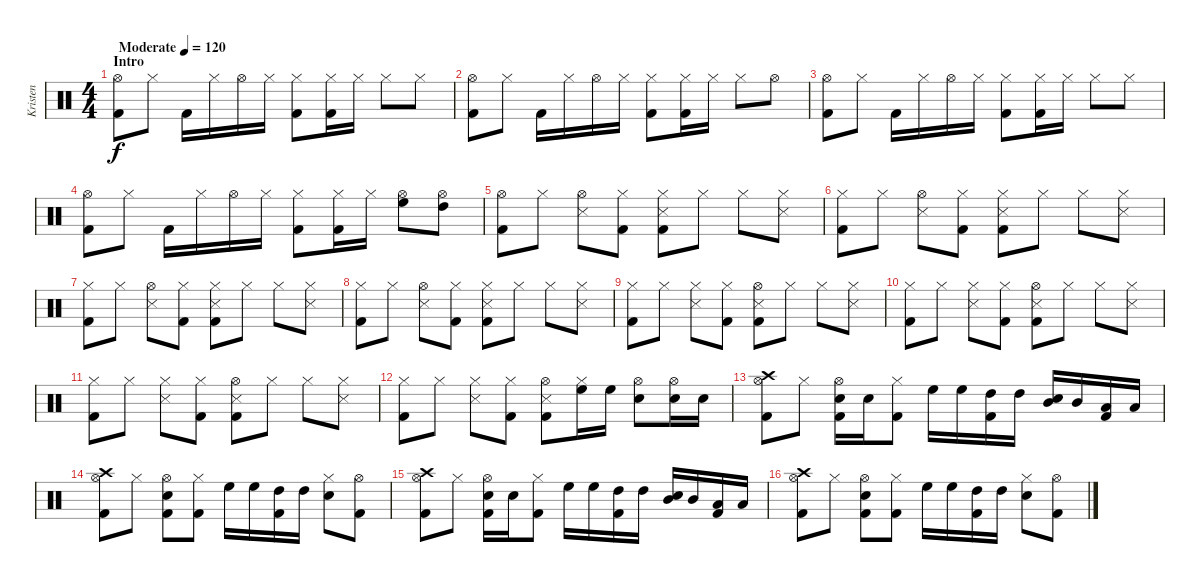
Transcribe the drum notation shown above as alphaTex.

\track ("Kristen" "Kristen") {instrument percussion}
\staff {score}
\articulation defaults
\ts (4 4)
\section ("" "Intro")
\tempo (120 "Moderate")
\clef neutral
\ks c
("Hi-Hat (open)" "Kick (hit) 2").8{dy f} "Hi-Hat (closed)".8 "Kick (hit) 2".16 "Hi-Hat (closed)".16 "Hi-Hat (open)".16 "Hi-Hat (closed)".16 ("Hi-Hat (closed)" "Kick (hit) 2").8 ("Hi-Hat (closed)" "Kick (hit) 2").16 "Hi-Hat (closed)".16 "Hi-Hat (closed)".8 "Hi-Hat (closed)".8 |
("Hi-Hat (open)" "Kick (hit) 2").8 "Hi-Hat (closed)".8 "Kick (hit) 2".16 "Hi-Hat (closed)".16 "Hi-Hat (open)".16 "Hi-Hat (closed)".16 ("Hi-Hat (closed)" "Kick (hit) 2").8 ("Hi-Hat (closed)" "Kick (hit) 2").16 "Hi-Hat (closed)".16 "Hi-Hat (closed)".8 "Hi-Hat (open)".8 |
("Hi-Hat (open)" "Kick (hit) 2").8 "Hi-Hat (closed)".8 "Kick (hit) 2".16 "Hi-Hat (closed)".16 "Hi-Hat (open)".16 "Hi-Hat (closed)".16 ("Hi-Hat (closed)" "Kick (hit) 2").8 ("Hi-Hat (closed)" "Kick (hit) 2").16 "Hi-Hat (closed)".16 "Hi-Hat (closed)".8 "Hi-Hat (closed)".8 |
("Hi-Hat (open)" "Kick (hit) 2").8 "Hi-Hat (closed)".8 "Kick (hit) 2".16 "Hi-Hat (closed)".16 "Hi-Hat (open)".16 "Hi-Hat (closed)".16 ("Hi-Hat (closed)" "Kick (hit) 2").8 ("Hi-Hat (closed)" "Kick (hit) 2").16 "Hi-Hat (closed)".16 ("High Floor Tom (hit)" "Hi-Hat (open)").8 ("High Tom (hit)" "Hi-Hat (open)").8 |
("Hi-Hat (open)" "Kick (hit) 2").8 "Hi-Hat (closed)".8 ("Hi-Hat (open)" "Snare (side stick) 3").8 ("Hi-Hat (closed)" "Kick (hit) 2").8 ("Hi-Hat (closed)" "Snare (side stick) 3" "Kick (hit) 2").8 "Hi-Hat (closed)".8 "Hi-Hat (closed)".8 ("Hi-Hat (closed)" "Snare (side stick) 3").8 |
("Hi-Hat (closed)" "Kick (hit) 2").8 "Hi-Hat (closed)".8 ("Hi-Hat (open)" "Snare (side stick) 3").8 ("Hi-Hat (closed)" "Kick (hit) 2").8 ("Hi-Hat (closed)" "Snare (side stick) 3" "Kick (hit) 2").8 "Hi-Hat (closed)".8 "Hi-Hat (closed)".8 ("Hi-Hat (closed)" "Snare (side stick) 3").8 |
("Hi-Hat (closed)" "Kick (hit) 2").8 "Hi-Hat (closed)".8 ("Hi-Hat (open)" "Snare (side stick) 3").8 ("Hi-Hat (closed)" "Kick (hit) 2").8 ("Hi-Hat (closed)" "Snare (side stick) 3" "Kick (hit) 2").8 "Hi-Hat (closed)".8 "Hi-Hat (closed)".8 ("Hi-Hat (closed)" "Snare (side stick) 3").8 |
("Hi-Hat (closed)" "Kick (hit) 2").8 "Hi-Hat (closed)".8 ("Hi-Hat (open)" "Snare (side stick) 3").8 ("Hi-Hat (closed)" "Kick (hit) 2").8 ("Hi-Hat (closed)" "Snare (side stick) 3" "Kick (hit) 2").8 "Hi-Hat (closed)".8 "Hi-Hat (closed)".8 ("Hi-Hat (closed)" "Snare (side stick) 3").8 |
("Hi-Hat (closed)" "Kick (hit) 2").8 "Hi-Hat (closed)".8 ("Hi-Hat (closed)" "Snare (side stick) 3").8 ("Hi-Hat (closed)" "Kick (hit) 2").8 ("Hi-Hat (open)" "Snare (side stick) 3" "Kick (hit) 2").8 "Hi-Hat (closed)".8 "Hi-Hat (closed)".8 ("Hi-Hat (closed)" "Snare (side stick) 3").8 |
("Hi-Hat (closed)" "Kick (hit) 2").8 "Hi-Hat (closed)".8 ("Hi-Hat (closed)" "Snare (side stick) 3").8 ("Hi-Hat (closed)" "Kick (hit) 2").8 ("Hi-Hat (open)" "Snare (side stick) 3" "Kick (hit) 2").8 "Hi-Hat (closed)".8 "Hi-Hat (closed)".8 ("Hi-Hat (closed)" "Snare (side stick) 3").8 |
("Hi-Hat (closed)" "Kick (hit) 2").8 "Hi-Hat (closed)".8 ("Hi-Hat (closed)" "Snare (side stick) 3").8 ("Hi-Hat (closed)" "Kick (hit) 2").8 ("Hi-Hat (open)" "Snare (side stick) 3" "Kick (hit) 2").8 "Hi-Hat (closed)".8 "Hi-Hat (closed)".8 ("Hi-Hat (closed)" "Snare (side stick) 3").8 |
("Hi-Hat (closed)" "Kick (hit) 2").8 "Hi-Hat (closed)".8 ("Hi-Hat (closed)" "Snare (side stick) 3").8 ("Hi-Hat (closed)" "Kick (hit) 2").8 ("Hi-Hat (open)" "Snare (side stick) 3" "Kick (hit) 2").8 ("High Floor Tom (hit)" "Hi-Hat (closed)").16 "High Floor Tom (hit)".16 ("Hi-Hat (open)" "Snare (hit) 2").8 ("Hi-Hat (open)" "Snare (hit) 2").16 "Snare (hit) 2".16 |
("Crash high (hit)" "Hi-Hat (open)" "Kick (hit) 2").8 "Hi-Hat (closed)".8 ("Hi-Hat (open)" "Snare (hit) 2" "Kick (hit) 2").16 "Snare (hit) 2".16 ("Hi-Hat (closed)" "Kick (hit) 2").8 "High Floor Tom (hit)".16 "High Floor Tom (hit)".16 ("High Tom (hit)" "Kick (hit) 2").16 "High Tom (hit)".16 ("Mid Tom (hit)" "Snare (hit) 2").16 "Mid Tom (hit)".16 ("Low Tom (hit)" "Kick (hit) 2").16 "Low Tom (hit)".16 |
("Crash high (hit)" "Hi-Hat (open)" "Kick (hit) 2").8 "Hi-Hat (closed)".8 ("Hi-Hat (open)" "Snare (hit) 2" "Kick (hit) 2").8 ("Hi-Hat (closed)" "Kick (hit) 2").8 "High Floor Tom (hit)".16 "High Floor Tom (hit)".16 ("High Tom (hit)" "Kick (hit) 2").16 "High Tom (hit)".16 ("Hi-Hat (closed)" "Snare (hit) 2").8 ("Hi-Hat (open)" "Kick (hit) 2").8 |
("Crash high (hit)" "Hi-Hat (open)" "Kick (hit) 2").8 "Hi-Hat (closed)".8 ("Hi-Hat (open)" "Snare (hit) 2" "Kick (hit) 2").16 "Snare (hit) 2".16 ("Hi-Hat (closed)" "Kick (hit) 2").8 "High Floor Tom (hit)".16 "High Floor Tom (hit)".16 ("High Tom (hit)" "Kick (hit) 2").16 "High Tom (hit)".16 ("Mid Tom (hit)" "Snare (hit) 2").16 "Mid Tom (hit)".16 ("Low Tom (hit)" "Kick (hit) 2").16 "Low Tom (hit)".16 |
("Crash high (hit)" "Hi-Hat (open)" "Kick (hit) 2").8 "Hi-Hat (closed)".8 ("Hi-Hat (open)" "Snare (hit) 2" "Kick (hit) 2").8 ("Hi-Hat (closed)" "Kick (hit) 2").8 "High Floor Tom (hit)".16 "High Floor Tom (hit)".16 ("High Tom (hit)" "Kick (hit) 2").16 "High Tom (hit)".16 ("Hi-Hat (closed)" "Snare (hit) 2").8 ("Hi-Hat (open)" "Kick (hit) 2").8
